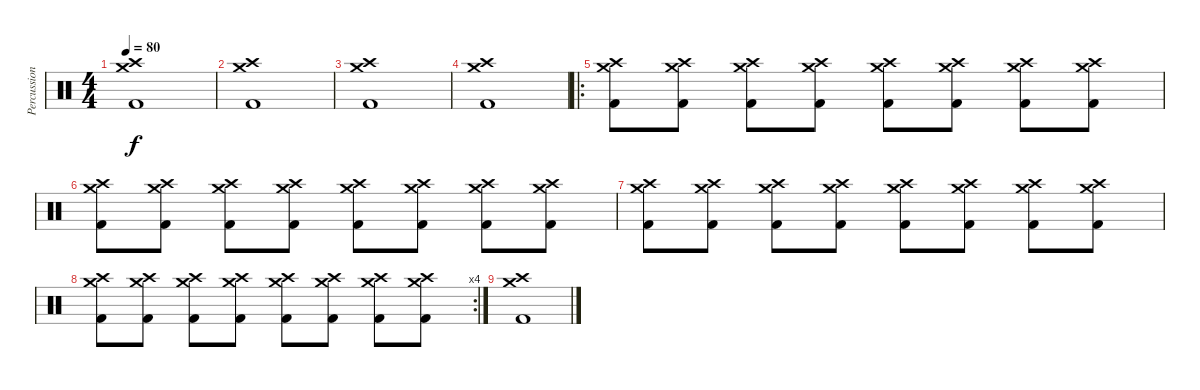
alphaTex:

\track ("Percussion" "Percussion") {instrument percussion}
\staff {score}
\articulation defaults
\ts (4 4)
\tempo 80
\clef neutral
\ks c
("Crash medium (hit)" "Crash high (hit)" "Kick (hit) 2").1{dy f} |
("Crash medium (hit)" "Crash high (hit)" "Kick (hit) 2").1 |
("Crash medium (hit)" "Crash high (hit)" "Kick (hit) 2").1 |
("Crash medium (hit)" "Crash high (hit)" "Kick (hit) 2").1 |
\ro
("Crash medium (hit)" "Crash high (hit)" "Kick (hit) 2").8 ("Crash medium (hit)" "Crash high (hit)" "Kick (hit) 2").8 ("Crash medium (hit)" "Crash high (hit)" "Kick (hit) 2").8 ("Crash medium (hit)" "Crash high (hit)" "Kick (hit) 2").8 ("Crash medium (hit)" "Crash high (hit)" "Kick (hit) 2").8 ("Crash medium (hit)" "Crash high (hit)" "Kick (hit) 2").8 ("Crash medium (hit)" "Crash high (hit)" "Kick (hit) 2").8 ("Crash medium (hit)" "Crash high (hit)" "Kick (hit) 2").8 |
("Crash medium (hit)" "Crash high (hit)" "Kick (hit) 2").8 ("Crash medium (hit)" "Crash high (hit)" "Kick (hit) 2").8 ("Crash medium (hit)" "Crash high (hit)" "Kick (hit) 2").8 ("Crash medium (hit)" "Crash high (hit)" "Kick (hit) 2").8 ("Crash medium (hit)" "Crash high (hit)" "Kick (hit) 2").8 ("Crash medium (hit)" "Crash high (hit)" "Kick (hit) 2").8 ("Crash medium (hit)" "Crash high (hit)" "Kick (hit) 2").8 ("Crash medium (hit)" "Crash high (hit)" "Kick (hit) 2").8 |
("Crash medium (hit)" "Crash high (hit)" "Kick (hit) 2").8 ("Crash medium (hit)" "Crash high (hit)" "Kick (hit) 2").8 ("Crash medium (hit)" "Crash high (hit)" "Kick (hit) 2").8 ("Crash medium (hit)" "Crash high (hit)" "Kick (hit) 2").8 ("Crash medium (hit)" "Crash high (hit)" "Kick (hit) 2").8 ("Crash medium (hit)" "Crash high (hit)" "Kick (hit) 2").8 ("Crash medium (hit)" "Crash high (hit)" "Kick (hit) 2").8 ("Crash medium (hit)" "Crash high (hit)" "Kick (hit) 2").8 |
\rc 4
("Crash medium (hit)" "Crash high (hit)" "Kick (hit) 2").8 ("Crash medium (hit)" "Crash high (hit)" "Kick (hit) 2").8 ("Crash medium (hit)" "Crash high (hit)" "Kick (hit) 2").8 ("Crash medium (hit)" "Crash high (hit)" "Kick (hit) 2").8 ("Crash medium (hit)" "Crash high (hit)" "Kick (hit) 2").8 ("Crash medium (hit)" "Crash high (hit)" "Kick (hit) 2").8 ("Crash medium (hit)" "Crash high (hit)" "Kick (hit) 2").8 ("Crash medium (hit)" "Crash high (hit)" "Kick (hit) 2").8 |
("Crash medium (hit)" "Crash high (hit)" "Kick (hit) 2").1
